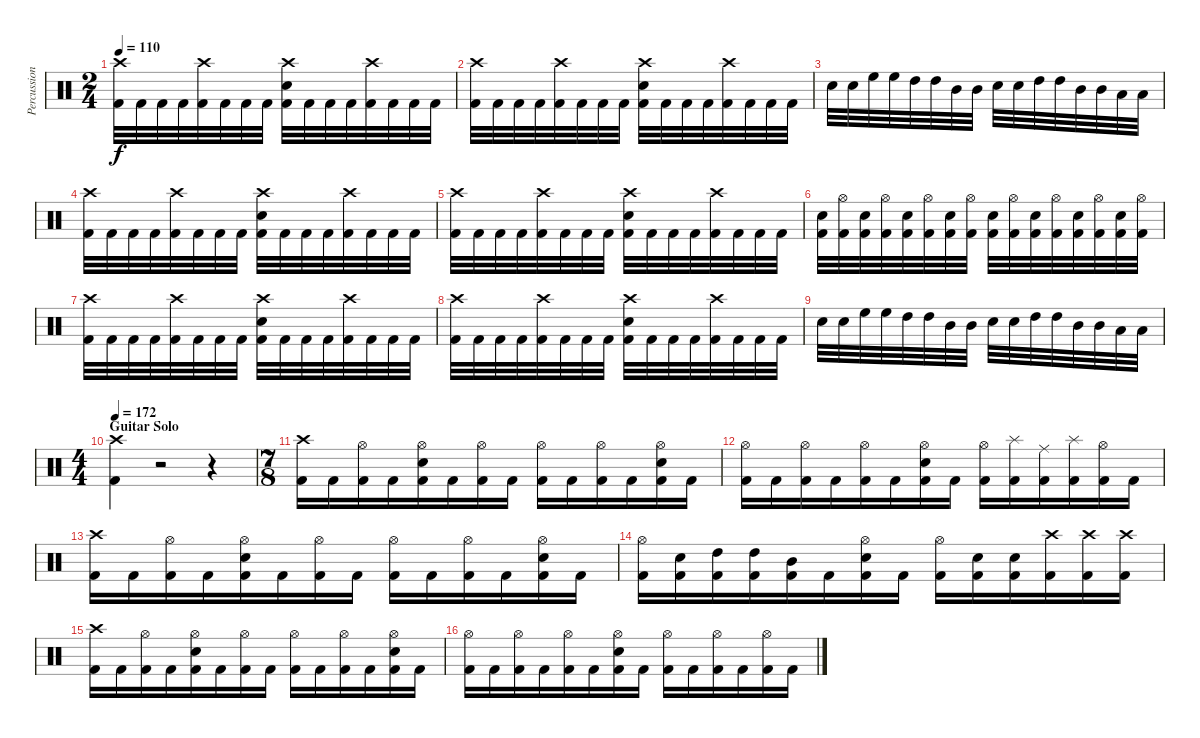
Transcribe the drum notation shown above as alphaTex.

\track ("Percussion" "Percussion") {instrument percussion}
\staff {score}
\articulation defaults
\ts (2 4)
\tempo 110
\clef neutral
\ks c
("Crash high (hit)" "Kick (hit) 2").32{dy f} "Kick (hit) 2".32 "Kick (hit) 2".32 "Kick (hit) 2".32 ("Crash high (hit)" "Kick (hit) 2").32 "Kick (hit) 2".32 "Kick (hit) 2".32 "Kick (hit) 2".32 ("Crash high (hit)" "Electric Snare (hit)" "Kick (hit) 2").32 "Kick (hit) 2".32 "Kick (hit) 2".32 "Kick (hit) 2".32 ("Crash high (hit)" "Kick (hit) 2").32 "Kick (hit) 2".32 "Kick (hit) 2".32 "Kick (hit) 2".32 |
("Crash high (hit)" "Kick (hit) 2").32 "Kick (hit) 2".32 "Kick (hit) 2".32 "Kick (hit) 2".32 ("Crash high (hit)" "Kick (hit) 2").32 "Kick (hit) 2".32 "Kick (hit) 2".32 "Kick (hit) 2".32 ("Crash high (hit)" "Electric Snare (hit)" "Kick (hit) 2").32 "Kick (hit) 2".32 "Kick (hit) 2".32 "Kick (hit) 2".32 ("Crash high (hit)" "Kick (hit) 2").32 "Kick (hit) 2".32 "Kick (hit) 2".32 "Kick (hit) 2".32 |
"Electric Snare (hit)".32 "Electric Snare (hit)".32 "High Floor Tom (hit)".32 "High Floor Tom (hit)".32 "High Tom (hit)".32 "High Tom (hit)".32 "Mid Tom (hit)".32 "Mid Tom (hit)".32 "Electric Snare (hit)".32 "Electric Snare (hit)".32 "High Tom (hit)".32 "High Tom (hit)".32 "Mid Tom (hit)".32 "Mid Tom (hit)".32 "Low Tom (hit)".32 "Low Tom (hit)".32 |
("Crash high (hit)" "Kick (hit) 2").32 "Kick (hit) 2".32 "Kick (hit) 2".32 "Kick (hit) 2".32 ("Crash high (hit)" "Kick (hit) 2").32 "Kick (hit) 2".32 "Kick (hit) 2".32 "Kick (hit) 2".32 ("Crash high (hit)" "Electric Snare (hit)" "Kick (hit) 2").32 "Kick (hit) 2".32 "Kick (hit) 2".32 "Kick (hit) 2".32 ("Crash high (hit)" "Kick (hit) 2").32 "Kick (hit) 2".32 "Kick (hit) 2".32 "Kick (hit) 2".32 |
("Crash high (hit)" "Kick (hit) 2").32 "Kick (hit) 2".32 "Kick (hit) 2".32 "Kick (hit) 2".32 ("Crash high (hit)" "Kick (hit) 2").32 "Kick (hit) 2".32 "Kick (hit) 2".32 "Kick (hit) 2".32 ("Crash high (hit)" "Electric Snare (hit)" "Kick (hit) 2").32 "Kick (hit) 2".32 "Kick (hit) 2".32 "Kick (hit) 2".32 ("Crash high (hit)" "Kick (hit) 2").32 "Kick (hit) 2".32 "Kick (hit) 2".32 "Kick (hit) 2".32 |
("Electric Snare (hit)" "Kick (hit) 2").32 ("Hi-Hat (open)" "Kick (hit) 2").32 ("Electric Snare (hit)" "Kick (hit) 2").32 ("Hi-Hat (open)" "Kick (hit) 2").32 ("Electric Snare (hit)" "Kick (hit) 2").32 ("Hi-Hat (open)" "Kick (hit) 2").32 ("Electric Snare (hit)" "Kick (hit) 2").32 ("Hi-Hat (open)" "Kick (hit) 2").32 ("Electric Snare (hit)" "Kick (hit) 2").32 ("Hi-Hat (open)" "Kick (hit) 2").32 ("Electric Snare (hit)" "Kick (hit) 2").32 ("Hi-Hat (open)" "Kick (hit) 2").32 ("Electric Snare (hit)" "Kick (hit) 2").32 ("Hi-Hat (open)" "Kick (hit) 2").32 ("Electric Snare (hit)" "Kick (hit) 2").32 ("Hi-Hat (open)" "Kick (hit) 2").32 |
("Crash high (hit)" "Kick (hit) 2").32 "Kick (hit) 2".32 "Kick (hit) 2".32 "Kick (hit) 2".32 ("Crash high (hit)" "Kick (hit) 2").32 "Kick (hit) 2".32 "Kick (hit) 2".32 "Kick (hit) 2".32 ("Crash high (hit)" "Electric Snare (hit)" "Kick (hit) 2").32 "Kick (hit) 2".32 "Kick (hit) 2".32 "Kick (hit) 2".32 ("Crash high (hit)" "Kick (hit) 2").32 "Kick (hit) 2".32 "Kick (hit) 2".32 "Kick (hit) 2".32 |
("Crash high (hit)" "Kick (hit) 2").32 "Kick (hit) 2".32 "Kick (hit) 2".32 "Kick (hit) 2".32 ("Crash high (hit)" "Kick (hit) 2").32 "Kick (hit) 2".32 "Kick (hit) 2".32 "Kick (hit) 2".32 ("Crash high (hit)" "Electric Snare (hit)" "Kick (hit) 2").32 "Kick (hit) 2".32 "Kick (hit) 2".32 "Kick (hit) 2".32 ("Crash high (hit)" "Kick (hit) 2").32 "Kick (hit) 2".32 "Kick (hit) 2".32 "Kick (hit) 2".32 |
"Electric Snare (hit)".32 "Electric Snare (hit)".32 "High Floor Tom (hit)".32 "High Floor Tom (hit)".32 "High Tom (hit)".32 "High Tom (hit)".32 "Mid Tom (hit)".32 "Mid Tom (hit)".32 "Electric Snare (hit)".32 "Electric Snare (hit)".32 "High Tom (hit)".32 "High Tom (hit)".32 "Mid Tom (hit)".32 "Mid Tom (hit)".32 "Low Tom (hit)".32 "Low Tom (hit)".32 |
\ts (4 4)
\section ("" "Guitar Solo")
\tempo 172
("Crash high (hit)" "Kick (hit) 2").4 r.2 r.4 |
\ts (7 8)
("Crash high (hit)" "Kick (hit) 2").16 "Kick (hit) 2".16 ("Hi-Hat (open)" "Kick (hit) 2").16 "Kick (hit) 2".16 ("Hi-Hat (open)" "Electric Snare (hit)" "Kick (hit) 2").16 "Kick (hit) 2".16 ("Hi-Hat (open)" "Kick (hit) 2").16 "Kick (hit) 2".16 ("Hi-Hat (open)" "Kick (hit) 2").16 "Kick (hit) 2".16 ("Hi-Hat (open)" "Kick (hit) 2").16 "Kick (hit) 2".16 ("Hi-Hat (open)" "Electric Snare (hit)" "Kick (hit) 2").16 "Kick (hit) 2".16 |
("Hi-Hat (open)" "Kick (hit) 2").16 "Kick (hit) 2".16 ("Hi-Hat (open)" "Kick (hit) 2").16 "Kick (hit) 2".16 ("Hi-Hat (open)" "Kick (hit) 2").16 "Kick (hit) 2".16 ("Hi-Hat (open)" "Electric Snare (hit)" "Kick (hit) 2").16 "Kick (hit) 2".16 ("Hi-Hat (open)" "Kick (hit) 2").16 ("Splash (hit)" "Kick (hit) 2").16 ("Ride (middle)" "Kick (hit) 2").16 ("Splash (hit)" "Kick (hit) 2").16 ("Hi-Hat (open)" "Kick (hit) 2").16 "Kick (hit) 2".16 |
("Crash high (hit)" "Kick (hit) 2").16 "Kick (hit) 2".16 ("Hi-Hat (open)" "Kick (hit) 2").16 "Kick (hit) 2".16 ("Hi-Hat (open)" "Electric Snare (hit)" "Kick (hit) 2").16 "Kick (hit) 2".16 ("Hi-Hat (open)" "Kick (hit) 2").16 "Kick (hit) 2".16 ("Hi-Hat (open)" "Kick (hit) 2").16 "Kick (hit) 2".16 ("Hi-Hat (open)" "Kick (hit) 2").16 "Kick (hit) 2".16 ("Hi-Hat (open)" "Electric Snare (hit)" "Kick (hit) 2").16 "Kick (hit) 2".16 |
("Hi-Hat (open)" "Kick (hit) 2").16 ("Electric Snare (hit)" "Kick (hit) 2").16 ("High Tom (hit)" "Kick (hit) 2").16 ("High Tom (hit)" "Kick (hit) 2").16 ("Mid Tom (hit)" "Kick (hit) 2").16 "Kick (hit) 2".16 ("Hi-Hat (open)" "Electric Snare (hit)" "Kick (hit) 2").16 "Kick (hit) 2".16 ("Hi-Hat (open)" "Kick (hit) 2").16 ("Electric Snare (hit)" "Kick (hit) 2").16 ("Electric Snare (hit)" "Kick (hit) 2").16 ("Crash high (hit)" "Kick (hit) 2").16 ("Crash high (hit)" "Kick (hit) 2").16 ("Crash high (hit)" "Kick (hit) 2").16 |
("Crash high (hit)" "Kick (hit) 2").16 "Kick (hit) 2".16 ("Hi-Hat (open)" "Kick (hit) 2").16 "Kick (hit) 2".16 ("Hi-Hat (open)" "Electric Snare (hit)" "Kick (hit) 2").16 "Kick (hit) 2".16 ("Hi-Hat (open)" "Kick (hit) 2").16 "Kick (hit) 2".16 ("Hi-Hat (open)" "Kick (hit) 2").16 "Kick (hit) 2".16 ("Hi-Hat (open)" "Kick (hit) 2").16 "Kick (hit) 2".16 ("Hi-Hat (open)" "Electric Snare (hit)" "Kick (hit) 2").16 "Kick (hit) 2".16 |
("Hi-Hat (open)" "Kick (hit) 2").16 "Kick (hit) 2".16 ("Hi-Hat (open)" "Kick (hit) 2").16 "Kick (hit) 2".16 ("Hi-Hat (open)" "Kick (hit) 2").16 "Kick (hit) 2".16 ("Hi-Hat (open)" "Electric Snare (hit)" "Kick (hit) 2").16 "Kick (hit) 2".16 ("Hi-Hat (open)" "Kick (hit) 2").16 "Kick (hit) 2".16 ("Hi-Hat (open)" "Kick (hit) 2").16 "Kick (hit) 2".16 ("Hi-Hat (open)" "Kick (hit) 2").16 "Kick (hit) 2".16
